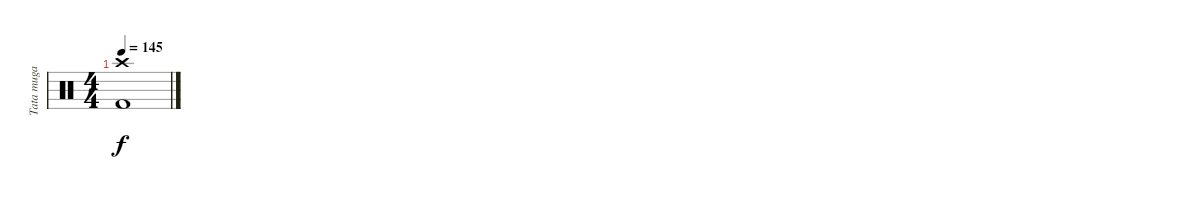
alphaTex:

\track ("Tata muga" "Tata muga") {instrument percussion}
\staff {score}
\articulation defaults
\ts (4 4)
\tempo 145
\clef neutral
\ks c
("Crash high (hit)" "Kick (hit) 2").1{dy f}
